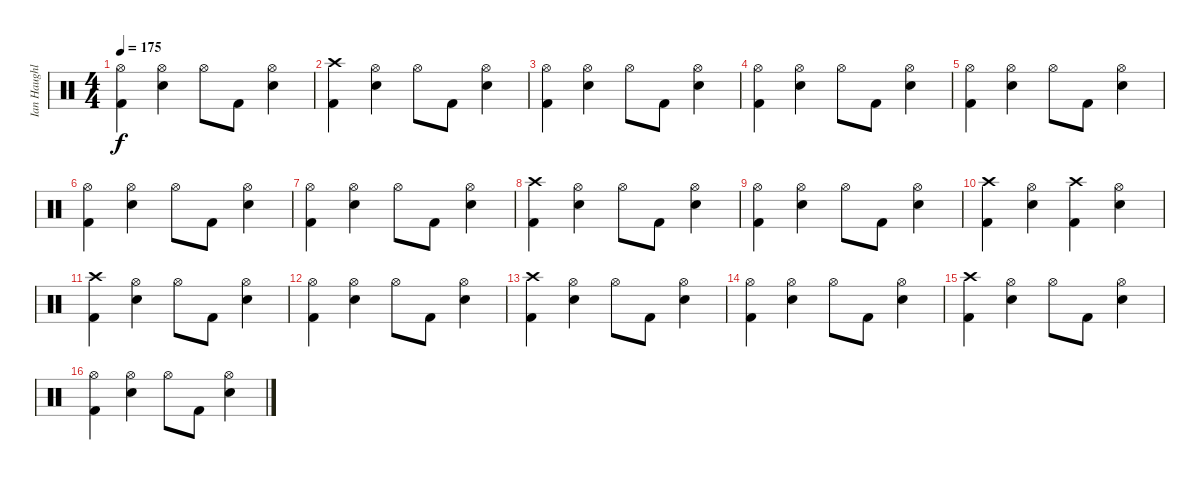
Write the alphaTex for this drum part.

\track ("Ian Haughland" "Ian Haughl") {instrument percussion}
\staff {score}
\articulation defaults
\ts (4 4)
\tempo 175
\clef neutral
\ks c
("Hi-Hat (open)" "Kick (hit) 2").4{dy f} ("Hi-Hat (open)" "Snare (hit) 2").4 "Hi-Hat (open)".8 "Kick (hit) 2".8 ("Hi-Hat (open)" "Snare (hit) 2").4 |
("Crash high (hit)" "Kick (hit) 2").4 ("Hi-Hat (open)" "Snare (hit) 2").4 "Hi-Hat (open)".8 "Kick (hit) 2".8 ("Hi-Hat (open)" "Snare (hit) 2").4 |
("Hi-Hat (open)" "Kick (hit) 2").4 ("Hi-Hat (open)" "Snare (hit) 2").4 "Hi-Hat (open)".8 "Kick (hit) 2".8 ("Hi-Hat (open)" "Snare (hit) 2").4 |
("Hi-Hat (open)" "Kick (hit) 2").4 ("Hi-Hat (open)" "Snare (hit) 2").4 "Hi-Hat (open)".8 "Kick (hit) 2".8 ("Hi-Hat (open)" "Snare (hit) 2").4 |
("Hi-Hat (open)" "Kick (hit) 2").4 ("Hi-Hat (open)" "Snare (hit) 2").4 "Hi-Hat (open)".8 "Kick (hit) 2".8 ("Hi-Hat (open)" "Snare (hit) 2").4 |
("Hi-Hat (open)" "Kick (hit) 2").4 ("Hi-Hat (open)" "Snare (hit) 2").4 "Hi-Hat (open)".8 "Kick (hit) 2".8 ("Hi-Hat (open)" "Snare (hit) 2").4 |
("Hi-Hat (open)" "Kick (hit) 2").4 ("Hi-Hat (open)" "Snare (hit) 2").4 "Hi-Hat (open)".8 "Kick (hit) 2".8 ("Hi-Hat (open)" "Snare (hit) 2").4 |
("Crash high (hit)" "Kick (hit) 2").4 ("Hi-Hat (open)" "Snare (hit) 2").4 "Hi-Hat (open)".8 "Kick (hit) 2".8 ("Hi-Hat (open)" "Snare (hit) 2").4 |
("Hi-Hat (open)" "Kick (hit) 2").4 ("Hi-Hat (open)" "Snare (hit) 2").4 "Hi-Hat (open)".8 "Kick (hit) 2".8 ("Hi-Hat (open)" "Snare (hit) 2").4 |
("Crash high (hit)" "Kick (hit) 2").4 ("Hi-Hat (open)" "Snare (hit) 2").4 ("Crash high (hit)" "Kick (hit) 2").4 ("Hi-Hat (open)" "Snare (hit) 2").4 |
("Crash high (hit)" "Kick (hit) 2").4 ("Hi-Hat (open)" "Snare (hit) 2").4 "Hi-Hat (open)".8 "Kick (hit) 2".8 ("Hi-Hat (open)" "Snare (hit) 2").4 |
("Hi-Hat (open)" "Kick (hit) 2").4 ("Hi-Hat (open)" "Snare (hit) 2").4 "Hi-Hat (open)".8 "Kick (hit) 2".8 ("Hi-Hat (open)" "Snare (hit) 2").4 |
("Crash high (hit)" "Kick (hit) 2").4 ("Hi-Hat (open)" "Snare (hit) 2").4 "Hi-Hat (open)".8 "Kick (hit) 2".8 ("Hi-Hat (open)" "Snare (hit) 2").4 |
("Hi-Hat (open)" "Kick (hit) 2").4 ("Hi-Hat (open)" "Snare (hit) 2").4 "Hi-Hat (open)".8 "Kick (hit) 2".8 ("Hi-Hat (open)" "Snare (hit) 2").4 |
("Crash high (hit)" "Kick (hit) 2").4 ("Hi-Hat (open)" "Snare (hit) 2").4 "Hi-Hat (open)".8 "Kick (hit) 2".8 ("Hi-Hat (open)" "Snare (hit) 2").4 |
("Hi-Hat (open)" "Kick (hit) 2").4 ("Hi-Hat (open)" "Snare (hit) 2").4 "Hi-Hat (open)".8 "Kick (hit) 2".8 ("Hi-Hat (open)" "Snare (hit) 2").4
